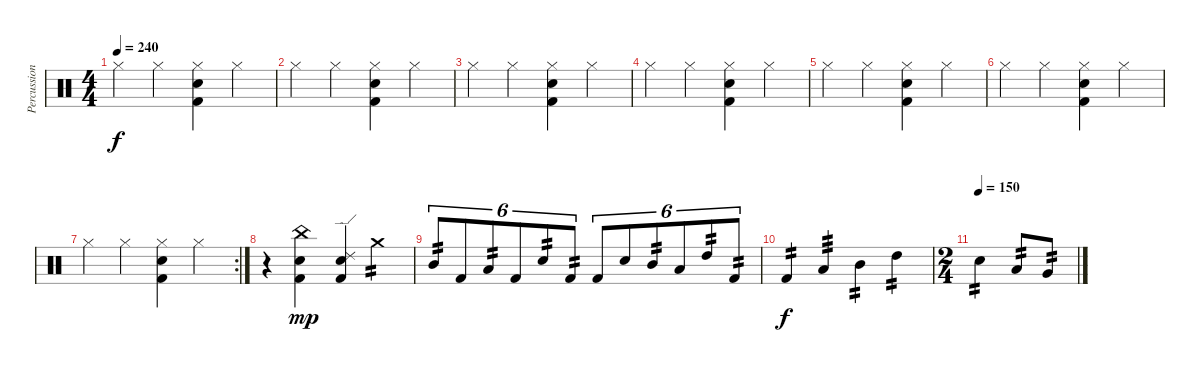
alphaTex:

\track ("Percussion" "Percussion") {instrument percussion}
\staff {score}
\articulation defaults
\ts (4 4)
\tempo 240
\clef neutral
\ks c "Hi-Hat (closed)".4{dy f} "Hi-Hat (closed)".4
("Kick (hit) 2" "Snare (hit) 2" "Hi-Hat (closed)").4 "Hi-Hat (closed)".4 |
"Hi-Hat (closed)".4 "Hi-Hat (closed)".4 ("Kick (hit) 2" "Snare (hit) 2" "Hi-Hat (closed)").4 "Hi-Hat (closed)".4 |
"Hi-Hat (closed)".4 "Hi-Hat (closed)".4 ("Kick (hit) 2" "Snare (hit) 2" "Hi-Hat (closed)").4 "Hi-Hat (closed)".4 |
"Hi-Hat (closed)".4 "Hi-Hat (closed)".4 ("Kick (hit) 2" "Snare (hit) 2" "Hi-Hat (closed)").4 "Hi-Hat (closed)".4 |
"Hi-Hat (closed)".4 "Hi-Hat (closed)".4 ("Kick (hit) 2" "Snare (hit) 2" "Hi-Hat (closed)").4 "Hi-Hat (closed)".4 |
"Hi-Hat (closed)".4 "Hi-Hat (closed)".4 ("Kick (hit) 2" "Snare (hit) 2" "Hi-Hat (closed)").4 "Hi-Hat (closed)".4 |
\rc 2 "Hi-Hat (closed)".4 "Hi-Hat (closed)".4
("Kick (hit) 2" "Snare (hit) 2" "Hi-Hat (closed)").4 "Hi-Hat (closed)".4 |
r.4 ("China (hit)" "Kick (hit) 2" "Snare (hit) 2").4{dy mp} ("Ride (edge) 2" "Kick (hit) 2" "Snare (hit) 2").4 "Crash medium (hit)".4{tp 2} |
"Mid Tom (hit)".8{tu (6 4) tp 2} "Kick (hit) 2".8{tu (6 4)} "Low Tom (hit)".8{tu (6 4) tp 2} "Kick (hit) 2".8{tu (6 4)} "Snare (hit) 2".8{tu (6 4) tp 2} "Kick (hit) 2".8{tu (6 4) tp 2} "Kick (hit) 2".8{tu (6 4)} "Snare (hit) 2".8{tu (6 4)} "Mid Tom (hit)".8{tu (6 4) tp 2} "Low Tom (hit)".8{tu (6 4)} "High Tom (hit)".8{tu (6 4) tp 2} "Kick (hit) 2".8{tu (6 4) tp 2} |
"Kick (hit) 2".4{tp 2 dy f} "Low Tom (hit)".4{tp 3} "Mid Tom (hit)".4{tp 2} "High Tom (hit)".4{tp 2} |
\ts (2 4)
\tempo (150)
"Snare (hit) 2".4{tp 2} "Low Tom (hit)".8{tp 2} "Very Low Tom (hit)".8{tp 2}
